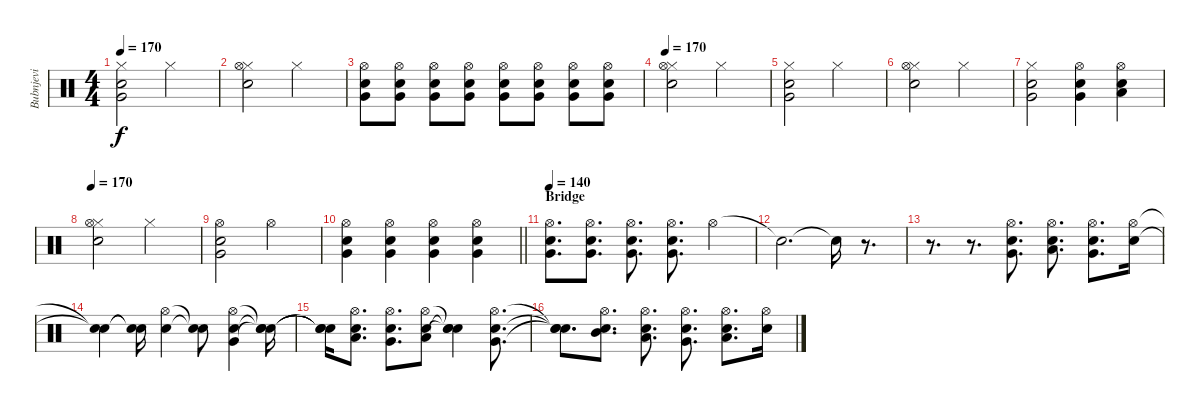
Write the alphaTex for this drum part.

\track ("Bubnjevi" "Bubnjevi") {instrument percussion}
\staff {score}
\articulation defaults
\ts (4 4)
\tempo 170
\clef neutral
\ks c
("Hi-Hat (closed)" "Very Low Tom (hit)" "Electric Snare (hit)").2{dy f} "Hi-Hat (closed)".2 |
("Hi-Hat (closed)" "Hi-Hat (open)" "Electric Snare (hit)").2 "Hi-Hat (closed)".2 |
("Hi-Hat (open)" "Very Low Tom (hit)" "Electric Snare (hit)").8 ("Hi-Hat (open)" "Very Low Tom (hit)" "Electric Snare (hit)").8 ("Hi-Hat (open)" "Very Low Tom (hit)" "Electric Snare (hit)").8 ("Hi-Hat (open)" "Very Low Tom (hit)" "Electric Snare (hit)").8 ("Hi-Hat (open)" "Very Low Tom (hit)" "Electric Snare (hit)").8 ("Hi-Hat (open)" "Very Low Tom (hit)" "Electric Snare (hit)").8 ("Hi-Hat (open)" "Very Low Tom (hit)" "Electric Snare (hit)").8 ("Hi-Hat (open)" "Very Low Tom (hit)" "Electric Snare (hit)").8 |
\tempo 170
("Hi-Hat (closed)" "Hi-Hat (open)" "Electric Snare (hit)").2 "Hi-Hat (closed)".2 |
("Hi-Hat (closed)" "Very Low Tom (hit)" "Electric Snare (hit)").2 "Hi-Hat (closed)".2 |
("Hi-Hat (closed)" "Hi-Hat (open)" "Electric Snare (hit)").2 "Hi-Hat (closed)".2 |
("Hi-Hat (closed)" "Very Low Tom (hit)" "Electric Snare (hit)").2 ("Hi-Hat (open)" "Very Low Tom (hit)" "Electric Snare (hit)").4 ("Hi-Hat (open)" "Low Tom (hit)" "Electric Snare (hit)").4 |
\tempo 170
("Hi-Hat (closed)" "Hi-Hat (open)" "Electric Snare (hit)").2 "Hi-Hat (closed)".2 |
("Hi-Hat (open)" "Electric Snare (hit)" "Very Low Tom (hit)").2 "Hi-Hat (open)".2 |
\barLineRight lightlight
("Hi-Hat (open)" "Very Low Tom (hit)" "Electric Snare (hit)").4 ("Hi-Hat (open)" "Very Low Tom (hit)" "Electric Snare (hit)").4 ("Hi-Hat (open)" "Very Low Tom (hit)" "Electric Snare (hit)").4 ("Hi-Hat (open)" "Very Low Tom (hit)" "Electric Snare (hit)").4 |
\section ("" "Bridge")
\tempo 140
("Hi-Hat (open)" "Very Low Tom (hit)" "Electric Snare (hit)").8{d} ("Hi-Hat (open)" "Very Low Tom (hit)" "Electric Snare (hit)").8{d} ("Hi-Hat (open)" "Very Low Tom (hit)" "Electric Snare (hit)").8{d} ("Hi-Hat (open)" "Very Low Tom (hit)" "Electric Snare (hit)").8{d} "Hi-Hat (open)".4 |
"Snare (hit)"{t}.2{d} "Snare (hit)"{t}.16 r.8{d} |
r.8{d} r.8{d} ("Hi-Hat (open)" "Very Low Tom (hit)" "Electric Snare (hit)").8{d} ("Hi-Hat (open)" "Low Tom (hit)" "Electric Snare (hit)").8{d} ("Hi-Hat (open)" "Very Low Tom (hit)" "Electric Snare (hit)").8{d} ("Hi-Hat (open)" "Electric Snare (hit)").16 |
("Snare (hit)"{t} "Snare (hit)"{t}).4 ("Snare (hit)"{t} "Snare (hit)"{t}).16 ("Hi-Hat (open)" "Electric Snare (hit)").4 ("Snare (hit)"{t} "Snare (hit)"{t}).8 ("Hi-Hat (open)" "Electric Snare (hit)" "Very Low Tom (hit)").4 ("Snare (hit)"{t} "Snare (hit)"{t} "Snare (hit)"{t}).16 |
("Snare (hit)"{t} "Snare (hit)"{t} "Snare (hit)"{t}).16 ("Hi-Hat (open)" "Low Tom (hit)" "Electric Snare (hit)").8{d} ("Hi-Hat (open)" "Very Low Tom (hit)" "Electric Snare (hit)").8{d} ("Hi-Hat (open)" "Low Tom (hit)" "Electric Snare (hit)").8 ("Snare (hit)"{t} "Snare (hit)"{t} "Snare (hit)"{t}).4 ("Hi-Hat (open)" "Very Low Tom (hit)" "Electric Snare (hit)").8{d} |
("Snare (hit)"{t} "Snare (hit)"{t} "Snare (hit)"{t}).8{d} ("Hi-Hat (open)" "Mid Tom (hit)" "Electric Snare (hit)").8{d} ("Hi-Hat (open)" "Low Tom (hit)" "Electric Snare (hit)").8{d} ("Hi-Hat (open)" "Very Low Tom (hit)" "Electric Snare (hit)").8{d} ("Hi-Hat (open)" "Low Floor Tom (hit)" "Electric Snare (hit)").8{d} ("Hi-Hat (open)" "Electric Snare (hit)").16
